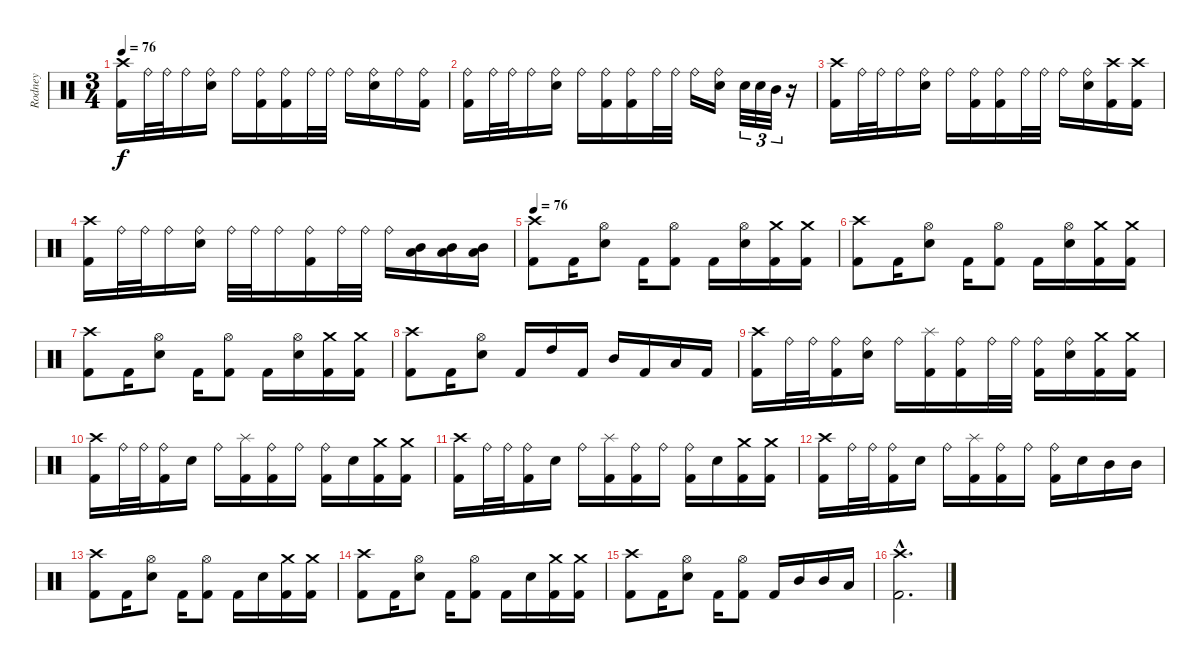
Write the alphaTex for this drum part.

\track ("Rodney" "Rodney") {instrument percussion}
\staff {score}
\articulation defaults
\ts (3 4)
\tempo 76
\clef neutral
\ks c
("Crash high (hit)" "Kick (hit) 2").16{dy f} "Ride (bell)".32 "Ride (bell)".32 "Ride (bell)".16 ("Ride (bell)" "Snare (hit) 2").16 "Ride (bell)".16 ("Ride (bell)" "Kick (hit) 2").16 ("Ride (bell)" "Kick (hit) 2").16 "Ride (bell)".32 "Ride (bell)".32 "Ride (bell)".16 ("Ride (bell)" "Snare (hit) 2").16 "Ride (bell)".16 ("Ride (bell)" "Kick (hit) 2").16 |
("Ride (bell)" "Kick (hit) 2").16 "Ride (bell)".32 "Ride (bell)".32 "Ride (bell)".16 ("Ride (bell)" "Snare (hit) 2").16 "Ride (bell)".16 ("Ride (bell)" "Kick (hit) 2").16 ("Ride (bell)" "Kick (hit) 2").16 "Ride (bell)".32 "Ride (bell)".32 "Ride (bell)".16 ("Ride (bell)" "Snare (hit) 2").16 "Snare (hit) 2".32{tu (3 2)} "Snare (hit) 2".32{tu (3 2)} "Mid Tom (hit)".32{tu (3 2)} r.16 |
("Crash high (hit)" "Kick (hit) 2").16 "Ride (bell)".32 "Ride (bell)".32 "Ride (bell)".16 ("Ride (bell)" "Snare (hit) 2").16 "Ride (bell)".16 ("Ride (bell)" "Kick (hit) 2").16 ("Ride (bell)" "Kick (hit) 2").16 "Ride (bell)".32 "Ride (bell)".32 "Ride (bell)".16 ("Ride (bell)" "Snare (hit) 2").16 ("Crash high (hit)" "Kick (hit) 2").16 ("Crash high (hit)" "Kick (hit) 2").16 |
("Crash high (hit)" "Kick (hit) 2").16 "Ride (bell)".32 "Ride (bell)".32 "Ride (bell)".16 ("Ride (bell)" "Snare (hit) 2").16 "Ride (bell)".32 "Ride (bell)".32 "Ride (bell)".16 ("Ride (bell)" "Kick (hit) 2").16 "Ride (bell)".32 "Ride (bell)".32 "Ride (bell)".16 ("Mid Tom (hit)" "Low Tom (hit)").16 ("Mid Tom (hit)" "Low Tom (hit)").16 ("Mid Tom (hit)" "Low Tom (hit)").16 |
\tempo 76
("Crash high (hit)" "Kick (hit) 2").8 "Kick (hit) 2".16 ("Hi-Hat (open)" "Snare (hit) 2").8 "Kick (hit) 2".16 ("Hi-Hat (open)" "Kick (hit) 2").8 "Kick (hit) 2".16 ("Hi-Hat (open)" "Snare (hit) 2").16 ("Crash medium (hit)" "Kick (hit) 2").16 ("Crash medium (hit)" "Kick (hit) 2").16 |
("Crash high (hit)" "Kick (hit) 2").8 "Kick (hit) 2".16 ("Hi-Hat (open)" "Snare (hit) 2").8 "Kick (hit) 2".16 ("Hi-Hat (open)" "Kick (hit) 2").8 "Kick (hit) 2".16 ("Hi-Hat (open)" "Snare (hit) 2").16 ("Crash medium (hit)" "Kick (hit) 2").16 ("Crash medium (hit)" "Kick (hit) 2").16 |
("Crash high (hit)" "Kick (hit) 2").8 "Kick (hit) 2".16 ("Hi-Hat (open)" "Snare (hit) 2").8 "Kick (hit) 2".16 ("Hi-Hat (open)" "Kick (hit) 2").8 "Kick (hit) 2".16 ("Hi-Hat (open)" "Snare (hit) 2").16 ("Crash medium (hit)" "Kick (hit) 2").16 ("Crash medium (hit)" "Kick (hit) 2").16 |
("Crash high (hit)" "Kick (hit) 2").8 "Kick (hit) 2".16 ("Hi-Hat (open)" "Snare (hit) 2").8 "Kick (hit) 2".16 "High Tom (hit)".16 "Kick (hit) 2".16 "Mid Tom (hit)".16 "Kick (hit) 2".16 "Low Tom (hit)".16 "Kick (hit) 2".16 |
("Crash high (hit)" "Kick (hit) 2").16 "Ride (bell)".32 "Ride (bell)".32 ("Ride (bell)" "Kick (hit) 2").16 ("Ride (bell)" "Snare (hit) 2").16 "Ride (bell)".16 ("Splash (hit)" "Kick (hit) 2").16 ("Ride (bell)" "Kick (hit) 2").16 "Ride (bell)".32 "Ride (bell)".32 ("Ride (bell)" "Kick (hit) 2").16 ("Ride (bell)" "Snare (hit) 2").16 ("Crash medium (hit)" "Kick (hit) 2").16 ("Crash medium (hit)" "Kick (hit) 2").16 |
("Crash high (hit)" "Kick (hit) 2").16 "Ride (bell)".32 "Ride (bell)".32 ("Ride (bell)" "Kick (hit) 2").16 "Snare (hit) 2".16 "Ride (bell)".16 ("Splash (hit)" "Kick (hit) 2").16 ("Ride (bell)" "Kick (hit) 2").16 "Ride (bell)".16 ("Ride (bell)" "Kick (hit) 2").16 "Snare (hit) 2".16 ("Crash medium (hit)" "Kick (hit) 2").16 ("Crash medium (hit)" "Kick (hit) 2").16 |
("Crash high (hit)" "Kick (hit) 2").16 "Ride (bell)".32 "Ride (bell)".32 ("Ride (bell)" "Kick (hit) 2").16 "Snare (hit) 2".16 "Ride (bell)".16 ("Splash (hit)" "Kick (hit) 2").16 ("Ride (bell)" "Kick (hit) 2").16 "Ride (bell)".16 ("Ride (bell)" "Kick (hit) 2").16 "Snare (hit) 2".16 ("Crash medium (hit)" "Kick (hit) 2").16 ("Crash medium (hit)" "Kick (hit) 2").16 |
("Crash high (hit)" "Kick (hit) 2").16 "Ride (bell)".32 "Ride (bell)".32 ("Ride (bell)" "Kick (hit) 2").16 "Snare (hit) 2".16 "Ride (bell)".16 ("Splash (hit)" "Kick (hit) 2").16 ("Ride (bell)" "Kick (hit) 2").16 "Ride (bell)".16 ("Ride (bell)" "Kick (hit) 2").16 "Snare (hit) 2".16 "Mid Tom (hit)".16 "Mid Tom (hit)".16 |
("Crash high (hit)" "Kick (hit) 2").8 "Kick (hit) 2".16 ("Hi-Hat (open)" "Snare (hit) 2").8 "Kick (hit) 2".16 ("Hi-Hat (open)" "Kick (hit) 2").8 "Kick (hit) 2".16 "Snare (hit) 2".16 ("Crash medium (hit)" "Kick (hit) 2").16 ("Crash medium (hit)" "Kick (hit) 2").16 |
("Crash high (hit)" "Kick (hit) 2").8 "Kick (hit) 2".16 ("Hi-Hat (open)" "Snare (hit) 2").8 "Kick (hit) 2".16 ("Hi-Hat (open)" "Kick (hit) 2").8 "Kick (hit) 2".16 "Snare (hit) 2".16 ("Crash medium (hit)" "Kick (hit) 2").16 ("Crash medium (hit)" "Kick (hit) 2").16 |
("Crash high (hit)" "Kick (hit) 2").8 "Kick (hit) 2".16 ("Hi-Hat (open)" "Snare (hit) 2").8 "Kick (hit) 2".16 ("Hi-Hat (open)" "Kick (hit) 2").8 "Kick (hit) 2".16 "Mid Tom (hit)".16 "Mid Tom (hit)".16 "Low Tom (hit)".16 |
("Crash high (hit)"{hac} "Kick (hit) 2"{hac}).2{d}
